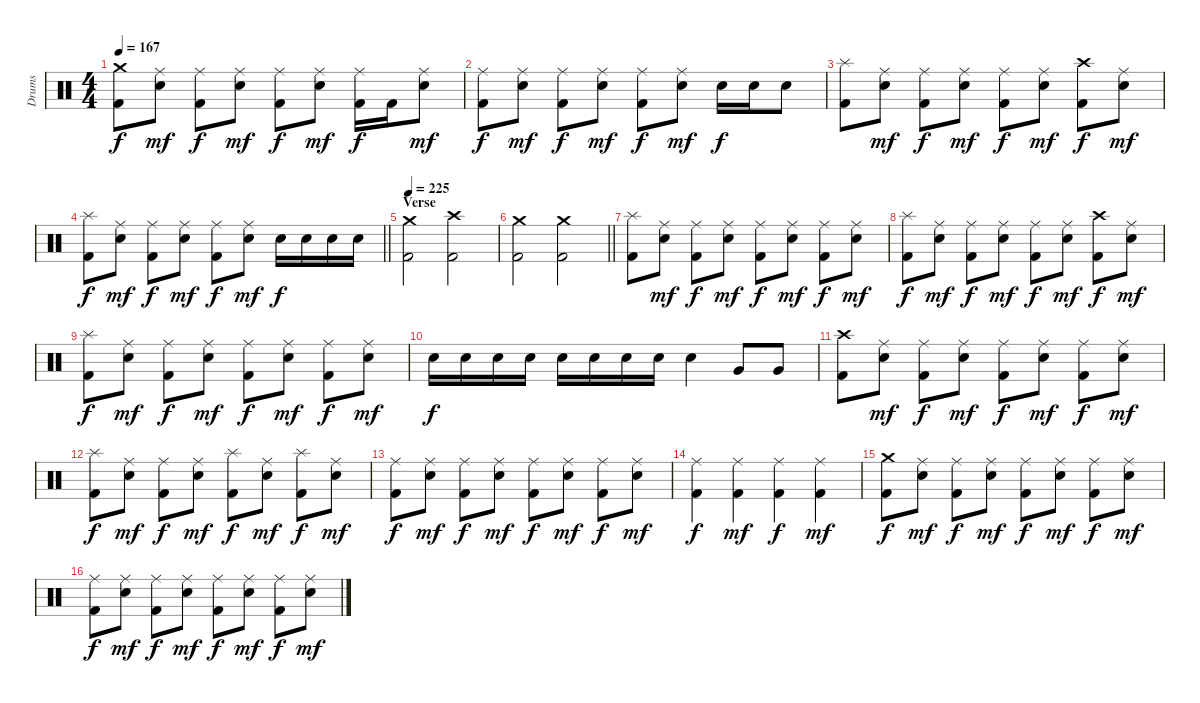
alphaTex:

\track ("Drums" "Drums") {instrument percussion}
\staff {score}
\articulation defaults
\ts (4 4)
\tempo 167
\clef neutral
\ks c
("Crash medium (hit)" "Kick (hit) 2").8{dy f} ("Ride (middle)" "Snare (hit) 2").8{dy mf} ("Ride (middle)" "Kick (hit) 2").8{dy f} ("Ride (middle)" "Snare (hit) 2").8{dy mf} ("Ride (middle)" "Kick (hit) 2").8{dy f} ("Ride (middle)" "Snare (hit) 2").8{dy mf} ("Ride (middle)" "Kick (hit) 2").16{dy f} "Kick (hit) 2".16 ("Ride (middle)" "Snare (hit) 2").8{dy mf} |
("Ride (middle)" "Kick (hit) 2").8{dy f} ("Ride (middle)" "Snare (hit) 2").8{dy mf} ("Ride (middle)" "Kick (hit) 2").8{dy f} ("Ride (middle)" "Snare (hit) 2").8{dy mf} ("Ride (middle)" "Kick (hit) 2").8{dy f} ("Ride (middle)" "Snare (hit) 2").8{dy mf} "Snare (hit) 2".16{dy f} "Snare (hit) 2".16 "Snare (hit) 2".8 |
("Splash (hit)" "Kick (hit) 2").8 ("Ride (middle)" "Snare (hit) 2").8{dy mf} ("Ride (middle)" "Kick (hit) 2").8{dy f} ("Ride (middle)" "Snare (hit) 2").8{dy mf} ("Ride (middle)" "Kick (hit) 2").8{dy f} ("Ride (middle)" "Snare (hit) 2").8{dy mf} ("Crash high (hit)" "Kick (hit) 2").8{dy f} ("Ride (middle)" "Snare (hit) 2").8{dy mf} |
\barLineRight lightlight
("Splash (hit)" "Kick (hit) 2").8{dy f} ("Ride (middle)" "Snare (hit) 2").8{dy mf} ("Ride (middle)" "Kick (hit) 2").8{dy f} ("Ride (middle)" "Snare (hit) 2").8{dy mf} ("Ride (middle)" "Kick (hit) 2").8{dy f} ("Ride (middle)" "Snare (hit) 2").8{dy mf} "Snare (hit) 2".16{dy f} "Snare (hit) 2".16 "Snare (hit) 2".16 "Snare (hit) 2".16 |
\section ("" "Verse")
\tempo 225
("Crash medium (hit)" "Kick (hit) 2").2 ("Crash high (hit)" "Kick (hit) 2").2 |
\barLineRight lightlight
("Crash medium (hit)" "Kick (hit) 2").2 ("Crash medium (hit)" "Kick (hit) 2").2 |
("Splash (hit)" "Kick (hit) 2").8 ("Ride (middle)" "Snare (hit) 2").8{dy mf} ("Ride (middle)" "Kick (hit) 2").8{dy f} ("Ride (middle)" "Snare (hit) 2").8{dy mf} ("Ride (middle)" "Kick (hit) 2").8{dy f} ("Ride (middle)" "Snare (hit) 2").8{dy mf} ("Ride (middle)" "Kick (hit) 2").8{dy f} ("Ride (middle)" "Snare (hit) 2").8{dy mf} |
("Splash (hit)" "Kick (hit) 2").8{dy f} ("Ride (middle)" "Snare (hit) 2").8{dy mf} ("Ride (middle)" "Kick (hit) 2").8{dy f} ("Ride (middle)" "Snare (hit) 2").8{dy mf} ("Ride (middle)" "Kick (hit) 2").8{dy f} ("Ride (middle)" "Snare (hit) 2").8{dy mf} ("Crash high (hit)" "Kick (hit) 2").8{dy f} ("Ride (middle)" "Snare (hit) 2").8{dy mf} |
("Splash (hit)" "Kick (hit) 2").8{dy f} ("Ride (middle)" "Snare (hit) 2").8{dy mf} ("Ride (middle)" "Kick (hit) 2").8{dy f} ("Ride (middle)" "Snare (hit) 2").8{dy mf} ("Ride (middle)" "Kick (hit) 2").8{dy f} ("Ride (middle)" "Snare (hit) 2").8{dy mf} ("Ride (middle)" "Kick (hit) 2").8{dy f} ("Ride (middle)" "Snare (hit) 2").8{dy mf} |
"Snare (hit) 2".16{dy f} "Snare (hit) 2".16 "Snare (hit) 2".16 "Snare (hit) 2".16 "Snare (hit) 2".16 "Snare (hit) 2".16 "Snare (hit) 2".16 "Snare (hit) 2".16 "Snare (hit) 2".4 "Very Low Tom (hit)".8 "Very Low Tom (hit)".8 |
("Crash high (hit)" "Kick (hit) 2").8 ("Ride (middle)" "Snare (hit) 2").8{dy mf} ("Ride (middle)" "Kick (hit) 2").8{dy f} ("Ride (middle)" "Snare (hit) 2").8{dy mf} ("Ride (middle)" "Kick (hit) 2").8{dy f} ("Ride (middle)" "Snare (hit) 2").8{dy mf} ("Ride (middle)" "Kick (hit) 2").8{dy f} ("Ride (middle)" "Snare (hit) 2").8{dy mf} |
("Splash (hit)" "Kick (hit) 2").8{dy f} ("Ride (middle)" "Snare (hit) 2").8{dy mf} ("Ride (middle)" "Kick (hit) 2").8{dy f} ("Ride (middle)" "Snare (hit) 2").8{dy mf} ("Splash (hit)" "Kick (hit) 2").8{dy f} ("Ride (middle)" "Snare (hit) 2").8{dy mf} ("Splash (hit)" "Kick (hit) 2").8{dy f} ("Ride (middle)" "Snare (hit) 2").8{dy mf} |
("Ride (middle)" "Kick (hit) 2").8{dy f} ("Ride (middle)" "Snare (hit) 2").8{dy mf} ("Ride (middle)" "Kick (hit) 2").8{dy f} ("Ride (middle)" "Snare (hit) 2").8{dy mf} ("Ride (middle)" "Kick (hit) 2").8{dy f} ("Ride (middle)" "Snare (hit) 2").8{dy mf} ("Ride (middle)" "Kick (hit) 2").8{dy f} ("Ride (middle)" "Snare (hit) 2").8{dy mf} |
("Ride (middle)" "Kick (hit) 2").4{dy f} ("Ride (middle)" "Kick (hit) 2").4{dy mf} ("Ride (middle)" "Kick (hit) 2").4{dy f} ("Ride (middle)" "Kick (hit) 2").4{dy mf} |
("Crash medium (hit)" "Kick (hit) 2").8{dy f} ("Ride (middle)" "Snare (hit) 2").8{dy mf} ("Ride (middle)" "Kick (hit) 2").8{dy f} ("Ride (middle)" "Snare (hit) 2").8{dy mf} ("Ride (middle)" "Kick (hit) 2").8{dy f} ("Ride (middle)" "Snare (hit) 2").8{dy mf} ("Ride (middle)" "Kick (hit) 2").8{dy f} ("Ride (middle)" "Snare (hit) 2").8{dy mf} |
("Ride (middle)" "Kick (hit) 2").8{dy f} ("Ride (middle)" "Snare (hit) 2").8{dy mf} ("Ride (middle)" "Kick (hit) 2").8{dy f} ("Ride (middle)" "Snare (hit) 2").8{dy mf} ("Ride (middle)" "Kick (hit) 2").8{dy f} ("Ride (middle)" "Snare (hit) 2").8{dy mf} ("Ride (middle)" "Kick (hit) 2").8{dy f} ("Ride (middle)" "Snare (hit) 2").8{dy mf}
